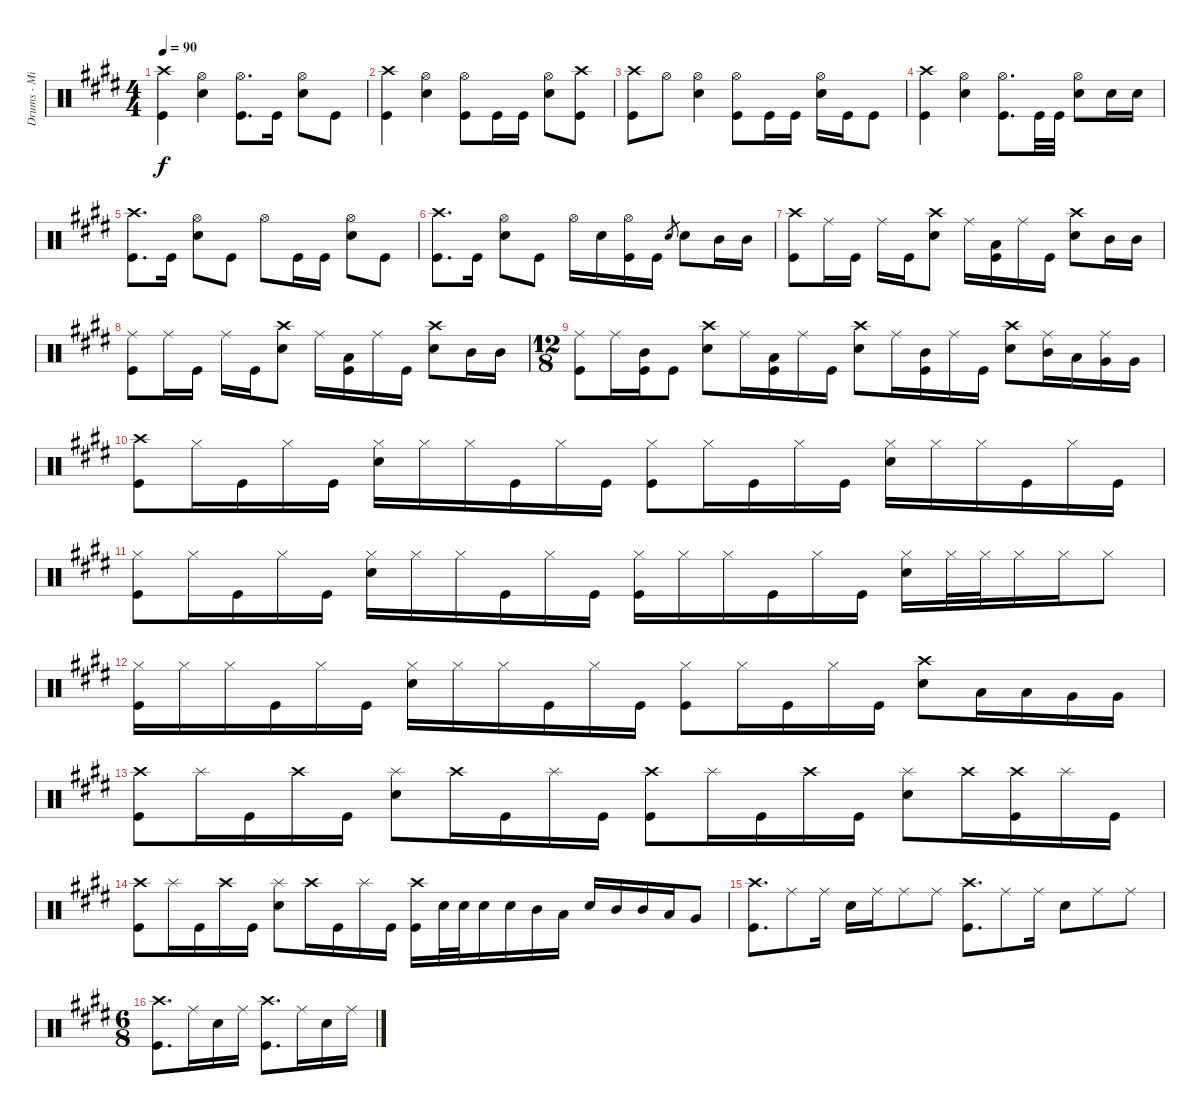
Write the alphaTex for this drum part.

\track ("Drums - Mike Portnoy" "Drums - Mi") {instrument percussion}
\staff {score}
\articulation defaults
\ts (4 4)
\tempo 90
\clef neutral
\ks e
("Crash high (hit)" "Kick (hit)").4{dy f} ("Hi-Hat (open)" "Snare (hit) 2").4 ("Hi-Hat (open)" "Kick (hit)").8{d} "Kick (hit)".16 ("Hi-Hat (open)" "Snare (hit) 2").8 "Kick (hit)".8 |
("Crash high (hit)" "Kick (hit)").4 ("Hi-Hat (open)" "Snare (hit) 2").4 ("Hi-Hat (open)" "Kick (hit)").8 "Kick (hit)".16 "Kick (hit)".16 ("Hi-Hat (open)" "Snare (hit) 2").8 ("Crash high (hit)" "Kick (hit)").8 |
("Crash high (hit)" "Kick (hit)").8 "Hi-Hat (open)".8 ("Hi-Hat (open)" "Snare (hit) 2").4 ("Hi-Hat (open)" "Kick (hit)").8 "Kick (hit)".16 "Kick (hit)".16 ("Hi-Hat (open)" "Snare (hit) 2").16 "Kick (hit)".16 "Kick (hit)".8 |
("Crash high (hit)" "Kick (hit)").4 ("Hi-Hat (open)" "Snare (hit) 2").4 ("Hi-Hat (open)" "Kick (hit)").8{d} "Kick (hit)".32 "Kick (hit)".32 ("Hi-Hat (open)" "Snare (hit) 2").8 "Snare (hit) 2".16 "Snare (hit) 2".16 |
("Crash high (hit)" "Kick (hit)").8{d} "Kick (hit)".16 ("Hi-Hat (open)" "Snare (hit) 2").8 "Kick (hit)".8 "Hi-Hat (open)".8 "Kick (hit)".16 "Kick (hit)".16 ("Hi-Hat (open)" "Snare (hit) 2").8 "Kick (hit)".8 |
("Crash high (hit)" "Kick (hit)").8{d} "Kick (hit)".16 ("Hi-Hat (open)" "Snare (hit) 2").8 "Kick (hit)".8 "Hi-Hat (open)".16 "Snare (hit) 2".16 ("Hi-Hat (open)" "Kick (hit)").16 "Kick (hit)".16 "Snare (hit) 2".8{gr} "Snare (hit) 2".8 "Mid Tom (hit)".16 "Mid Tom (hit)".16 |
("Crash high (hit)" "Kick (hit)").8 "Ride (middle)".16 "Kick (hit)".16 "Ride (middle)".16 "Kick (hit)".16 ("Crash high (hit)" "Snare (hit) 2").8 "Ride (middle)".16 ("Low Floor Tom (hit)" "Kick (hit)").16 "Ride (middle)".16 "Kick (hit)".16 ("Crash high (hit)" "Snare (hit) 2").8 "Mid Tom (hit)".16 "Mid Tom (hit)".16 |
("Ride (middle)" "Kick (hit)").8 "Ride (middle)".16 "Kick (hit)".16 "Ride (middle)".16 "Kick (hit)".16 ("Crash high (hit)" "Snare (hit) 2").8 "Ride (middle)".16 ("Low Floor Tom (hit)" "Kick (hit)").16 "Ride (middle)".16 "Kick (hit)".16 ("Crash high (hit)" "Snare (hit) 2").8 "Mid Tom (hit)".16 "Mid Tom (hit)".16 |
\ts (12 8)
("Ride (middle)" "Kick (hit)").8 "Ride (middle)".16 ("Mid Tom (hit)" "Kick (hit)").16 "Kick (hit)".8 ("Crash high (hit)" "Snare (hit) 2").8 "Ride (middle)".16 ("Low Floor Tom (hit)" "Kick (hit)").16 "Ride (middle)".16 "Kick (hit)".16 ("Crash high (hit)" "Snare (hit) 2").8 "Ride (middle)".16 ("Mid Tom (hit)" "Kick (hit)").16 "Ride (middle)".16 "Kick (hit)".16 ("Crash high (hit)" "Snare (hit) 2").8 ("Ride (middle)" "Mid Tom (hit)").16 "Low Tom (hit)".16 ("Ride (middle)" "Very Low Tom (hit)").16 "Very Low Tom (hit)".16 |
("Crash high (hit)" "Kick (hit)").8 "Hi-Hat (closed)".16 "Kick (hit)".16 "Hi-Hat (closed)".16 "Kick (hit)".16 ("Hi-Hat (closed)" "Snare (hit) 2").16 "Hi-Hat (closed)".16 "Hi-Hat (closed)".16 "Kick (hit)".16 "Hi-Hat (closed)".16 "Kick (hit)".16 ("Hi-Hat (closed)" "Kick (hit)").8 "Hi-Hat (closed)".16 "Kick (hit)".16 "Hi-Hat (closed)".16 "Kick (hit)".16 ("Hi-Hat (closed)" "Snare (hit) 2").16 "Hi-Hat (closed)".16 "Hi-Hat (closed)".16 "Kick (hit)".16 "Hi-Hat (closed)".16 "Kick (hit)".16 |
("Hi-Hat (closed)" "Kick (hit)").8 "Hi-Hat (closed)".16 "Kick (hit)".16 "Hi-Hat (closed)".16 "Kick (hit)".16 ("Hi-Hat (closed)" "Snare (hit) 2").16 "Hi-Hat (closed)".16 "Hi-Hat (closed)".16 "Kick (hit)".16 "Hi-Hat (closed)".16 "Kick (hit)".16 ("Hi-Hat (closed)" "Kick (hit)").16 "Hi-Hat (closed)".16 "Hi-Hat (closed)".16 "Kick (hit)".16 "Hi-Hat (closed)".16 "Kick (hit)".16 ("Hi-Hat (closed)" "Snare (hit) 2").16 "Hi-Hat (closed)".32 "Hi-Hat (closed)".32 "Hi-Hat (closed)".16 "Hi-Hat (closed)".16 "Hi-Hat (closed)".8 |
("Hi-Hat (closed)" "Kick (hit)").16 "Hi-Hat (closed)".16 "Hi-Hat (closed)".16 "Kick (hit)".16 "Hi-Hat (closed)".16 "Kick (hit)".16 ("Hi-Hat (closed)" "Snare (hit) 2").16 "Hi-Hat (closed)".16 "Hi-Hat (closed)".16 "Kick (hit)".16 "Hi-Hat (closed)".16 "Kick (hit)".16 ("Hi-Hat (closed)" "Kick (hit)").8 "Hi-Hat (closed)".16 "Kick (hit)".16 "Hi-Hat (closed)".16 "Kick (hit)".16 ("Crash high (hit)" "Snare (hit) 2").8 "Low Tom (hit)".16 "Low Tom (hit)".16 "Very Low Tom (hit)".16 "Very Low Tom (hit)".16 |
("Crash high (hit)" "Kick (hit)").8 "Splash (hit)".16 "Kick (hit)".16 "Crash high (hit)".16 "Kick (hit)".16 ("Splash (hit)" "Snare (hit) 2").8 "Crash high (hit)".16 "Kick (hit)".16 "Splash (hit)".16 "Kick (hit)".16 ("Crash high (hit)" "Kick (hit)").8 "Splash (hit)".16 "Kick (hit)".16 "Crash high (hit)".16 "Kick (hit)".16 ("Splash (hit)" "Snare (hit) 2").8 "Crash high (hit)".16 ("Crash high (hit)" "Kick (hit)").16 "Splash (hit)".16 "Kick (hit)".16 |
("Crash high (hit)" "Kick (hit)").8 "Splash (hit)".16 "Kick (hit)".16 "Crash high (hit)".16 "Kick (hit)".16 ("Splash (hit)" "Snare (hit) 2").8 "Crash high (hit)".16 "Kick (hit)".16 "Splash (hit)".16 "Kick (hit)".16 ("Crash high (hit)" "Kick (hit)").16 "Snare (hit) 2".32 "Snare (hit) 2".32 "Snare (hit) 2".16 "Snare (hit) 2".16 "Mid Tom (hit)".16 "Low Tom (hit)".16 "Snare (hit) 2".16 "Mid Tom (hit)".16 "Mid Tom (hit)".16 "Low Tom (hit)".16 "Very Low Tom (hit)".8 |
("Crash high (hit)" "Kick (hit)").8{d} "Ride (middle)".8 "Ride (middle)".16 "Snare (hit) 2".16 "Ride (middle)".16 "Ride (middle)".8 "Ride (middle)".8 ("Crash high (hit)" "Kick (hit)").8{d} "Ride (middle)".8 "Ride (middle)".16 "Snare (hit) 2".8 "Ride (middle)".8 "Ride (middle)".8 |
\ts (6 8)
("Crash high (hit)" "Kick (hit)").8{d} "Ride (middle)".16 "Snare (hit) 2".16 "Ride (middle)".16 ("Crash high (hit)" "Kick (hit)").8{d} "Ride (middle)".16 "Snare (hit) 2".16 "Ride (middle)".16
